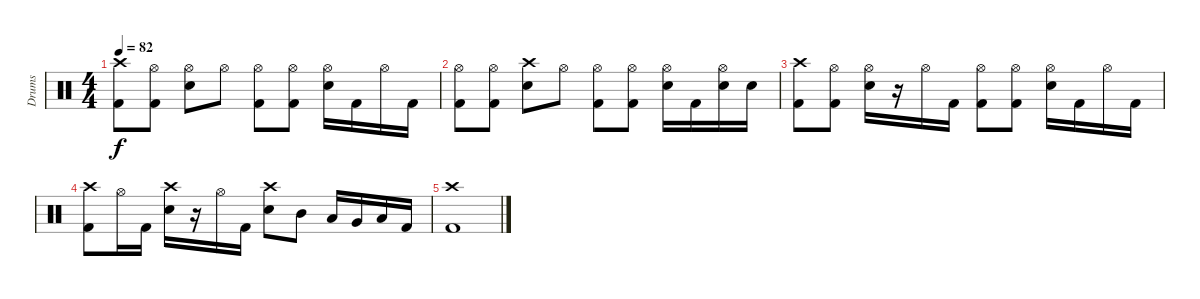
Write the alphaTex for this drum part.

\track ("Drums" "Drums") {instrument percussion}
\staff {score}
\articulation defaults
\ts (4 4)
\tempo 82
\clef neutral
\ks c
("Kick (hit) 2" "Crash high (hit)").8{dy f} ("Kick (hit) 2" "Hi-Hat (open)").8 ("Electric Snare (hit)" "Hi-Hat (open)").8 "Hi-Hat (open)".8 ("Kick (hit) 2" "Hi-Hat (open)").8 ("Kick (hit) 2" "Hi-Hat (open)").8 ("Electric Snare (hit)" "Hi-Hat (open)").16 "Kick (hit) 2".16 "Hi-Hat (open)".16 "Kick (hit) 2".16 |
("Kick (hit) 2" "Hi-Hat (open)").8 ("Kick (hit) 2" "Hi-Hat (open)").8 ("Electric Snare (hit)" "Crash high (hit)").8 "Hi-Hat (open)".8 ("Kick (hit) 2" "Hi-Hat (open)").8 ("Kick (hit) 2" "Hi-Hat (open)").8 ("Electric Snare (hit)" "Hi-Hat (open)").16 "Kick (hit) 2".16 ("Hi-Hat (open)" "Electric Snare (hit)").16 "Electric Snare (hit)".16 |
("Kick (hit) 2" "Crash high (hit)").8 ("Kick (hit) 2" "Hi-Hat (open)").8 ("Electric Snare (hit)" "Hi-Hat (open)").16 r.16 "Hi-Hat (open)".16 "Kick (hit) 2".16 ("Kick (hit) 2" "Hi-Hat (open)").8 ("Kick (hit) 2" "Hi-Hat (open)").8 ("Electric Snare (hit)" "Hi-Hat (open)").16 "Kick (hit) 2".16 "Hi-Hat (open)".16 "Kick (hit) 2".16 |
("Crash high (hit)" "Kick (hit) 2").8 "Hi-Hat (open)".16 "Kick (hit) 2".16 ("Electric Snare (hit)" "Crash high (hit)").16 r.16 "Hi-Hat (open)".16 "Kick (hit) 2".16 ("Electric Snare (hit)" "Crash high (hit)").8 "Mid Tom (hit)".8 "Low Tom (hit)".16 "Very Low Tom (hit)".16 "Low Floor Tom (hit)".16 "Kick (hit) 2".16 |
("Kick (hit) 2" "Crash high (hit)").1
